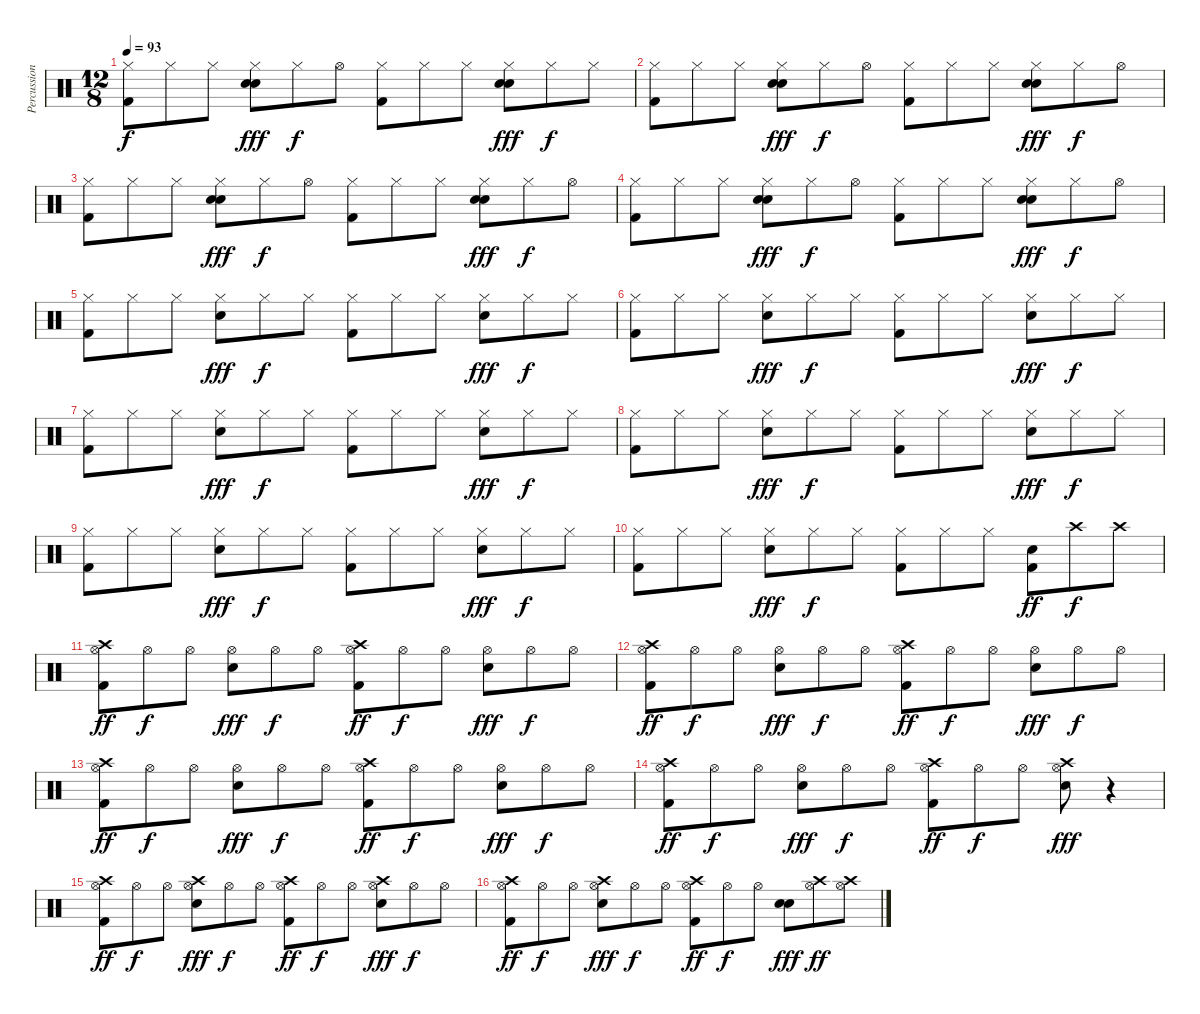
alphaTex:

\track ("Percussion" "Percussion") {instrument percussion}
\staff {score}
\articulation defaults
\ts (12 8)
\tempo 93
\clef neutral
\ks c
("Hi-Hat (closed)" "Kick (hit) 2").8{dy f} "Hi-Hat (closed)".8 "Hi-Hat (closed)".8 ("Hand Clap (hit)" "Hi-Hat (closed)" "Snare (hit) 2").8{dy fff} "Hi-Hat (closed)".8{dy f} "Hi-Hat (open)".8 ("Hi-Hat (closed)" "Kick (hit) 2").8 "Hi-Hat (closed)".8 "Hi-Hat (closed)".8 ("Hand Clap (hit)" "Hi-Hat (closed)" "Snare (hit) 2").8{dy fff} "Hi-Hat (closed)".8{dy f} "Hi-Hat (closed)".8 |
("Hi-Hat (closed)" "Kick (hit) 2").8 "Hi-Hat (closed)".8 "Hi-Hat (closed)".8 ("Hand Clap (hit)" "Hi-Hat (closed)" "Snare (hit) 2").8{dy fff} "Hi-Hat (closed)".8{dy f} "Hi-Hat (open)".8 ("Hi-Hat (closed)" "Kick (hit) 2").8 "Hi-Hat (closed)".8 "Hi-Hat (closed)".8 ("Hand Clap (hit)" "Hi-Hat (closed)" "Snare (hit) 2").8{dy fff} "Hi-Hat (closed)".8{dy f} "Hi-Hat (open)".8 |
("Hi-Hat (closed)" "Kick (hit) 2").8 "Hi-Hat (closed)".8 "Hi-Hat (closed)".8 ("Hand Clap (hit)" "Hi-Hat (closed)" "Snare (hit) 2").8{dy fff} "Hi-Hat (closed)".8{dy f} "Hi-Hat (open)".8 ("Hi-Hat (closed)" "Kick (hit) 2").8 "Hi-Hat (closed)".8 "Hi-Hat (closed)".8 ("Hand Clap (hit)" "Hi-Hat (closed)" "Snare (hit) 2").8{dy fff} "Hi-Hat (closed)".8{dy f} "Hi-Hat (open)".8 |
("Hi-Hat (closed)" "Kick (hit) 2").8 "Hi-Hat (closed)".8 "Hi-Hat (closed)".8 ("Hand Clap (hit)" "Hi-Hat (closed)" "Snare (hit) 2").8{dy fff} "Hi-Hat (closed)".8{dy f} "Hi-Hat (open)".8 ("Hi-Hat (closed)" "Kick (hit) 2").8 "Hi-Hat (closed)".8 "Hi-Hat (closed)".8 ("Hand Clap (hit)" "Hi-Hat (closed)" "Snare (hit) 2").8{dy fff} "Hi-Hat (closed)".8{dy f} "Hi-Hat (open)".8 |
("Hi-Hat (closed)" "Kick (hit) 2").8 "Hi-Hat (closed)".8 "Hi-Hat (closed)".8 ("Hi-Hat (closed)" "Snare (hit) 2").8{dy fff} "Hi-Hat (closed)".8{dy f} "Hi-Hat (closed)".8 ("Hi-Hat (closed)" "Kick (hit) 2").8 "Hi-Hat (closed)".8 "Hi-Hat (closed)".8 ("Hi-Hat (closed)" "Snare (hit) 2").8{dy fff} "Hi-Hat (closed)".8{dy f} "Hi-Hat (closed)".8 |
("Hi-Hat (closed)" "Kick (hit) 2").8 "Hi-Hat (closed)".8 "Hi-Hat (closed)".8 ("Hi-Hat (closed)" "Snare (hit) 2").8{dy fff} "Hi-Hat (closed)".8{dy f} "Hi-Hat (closed)".8 ("Hi-Hat (closed)" "Kick (hit) 2").8 "Hi-Hat (closed)".8 "Hi-Hat (closed)".8 ("Hi-Hat (closed)" "Snare (hit) 2").8{dy fff} "Hi-Hat (closed)".8{dy f} "Hi-Hat (closed)".8 |
("Hi-Hat (closed)" "Kick (hit) 2").8 "Hi-Hat (closed)".8 "Hi-Hat (closed)".8 ("Hi-Hat (closed)" "Snare (hit) 2").8{dy fff} "Hi-Hat (closed)".8{dy f} "Hi-Hat (closed)".8 ("Hi-Hat (closed)" "Kick (hit) 2").8 "Hi-Hat (closed)".8 "Hi-Hat (closed)".8 ("Hi-Hat (closed)" "Snare (hit) 2").8{dy fff} "Hi-Hat (closed)".8{dy f} "Hi-Hat (closed)".8 |
("Hi-Hat (closed)" "Kick (hit) 2").8 "Hi-Hat (closed)".8 "Hi-Hat (closed)".8 ("Hi-Hat (closed)" "Snare (hit) 2").8{dy fff} "Hi-Hat (closed)".8{dy f} "Hi-Hat (closed)".8 ("Hi-Hat (closed)" "Kick (hit) 2").8 "Hi-Hat (closed)".8 "Hi-Hat (closed)".8 ("Hi-Hat (closed)" "Snare (hit) 2").8{dy fff} "Hi-Hat (closed)".8{dy f} "Hi-Hat (closed)".8 |
("Hi-Hat (closed)" "Kick (hit) 2").8 "Hi-Hat (closed)".8 "Hi-Hat (closed)".8 ("Hi-Hat (closed)" "Snare (hit) 2").8{dy fff} "Hi-Hat (closed)".8{dy f} "Hi-Hat (closed)".8 ("Hi-Hat (closed)" "Kick (hit) 2").8 "Hi-Hat (closed)".8 "Hi-Hat (closed)".8 ("Hi-Hat (closed)" "Snare (hit) 2").8{dy fff} "Hi-Hat (closed)".8{dy f} "Hi-Hat (closed)".8 |
("Hi-Hat (closed)" "Kick (hit) 2").8 "Hi-Hat (closed)".8 "Hi-Hat (closed)".8 ("Hi-Hat (closed)" "Snare (hit) 2").8{dy fff} "Hi-Hat (closed)".8{dy f} "Hi-Hat (closed)".8 ("Hi-Hat (closed)" "Kick (hit) 2").8 "Hi-Hat (closed)".8 "Hi-Hat (closed)".8 ("Hand Clap (hit)" "Kick (hit) 2").8{dy ff} "Crash high (hit)".8{dy f} "Crash high (hit)".8 |
("Crash high (hit)" "Hi-Hat (open)" "Kick (hit) 2").8{dy ff} "Hi-Hat (open)".8{dy f} "Hi-Hat (open)".8 ("Hi-Hat (open)" "Snare (hit) 2").8{dy fff} "Hi-Hat (open)".8{dy f} "Hi-Hat (open)".8 ("Crash high (hit)" "Hi-Hat (open)" "Kick (hit) 2").8{dy ff} "Hi-Hat (open)".8{dy f} "Hi-Hat (open)".8 ("Hi-Hat (open)" "Snare (hit) 2").8{dy fff} "Hi-Hat (open)".8{dy f} "Hi-Hat (open)".8 |
("Crash high (hit)" "Hi-Hat (open)" "Kick (hit) 2").8{dy ff} "Hi-Hat (open)".8{dy f} "Hi-Hat (open)".8 ("Hi-Hat (open)" "Snare (hit) 2").8{dy fff} "Hi-Hat (open)".8{dy f} "Hi-Hat (open)".8 ("Crash high (hit)" "Hi-Hat (open)" "Kick (hit) 2").8{dy ff} "Hi-Hat (open)".8{dy f} "Hi-Hat (open)".8 ("Hi-Hat (open)" "Snare (hit) 2").8{dy fff} "Hi-Hat (open)".8{dy f} "Hi-Hat (open)".8 |
("Crash high (hit)" "Hi-Hat (open)" "Kick (hit) 2").8{dy ff} "Hi-Hat (open)".8{dy f} "Hi-Hat (open)".8 ("Hi-Hat (open)" "Snare (hit) 2").8{dy fff} "Hi-Hat (open)".8{dy f} "Hi-Hat (open)".8 ("Crash high (hit)" "Hi-Hat (open)" "Kick (hit) 2").8{dy ff} "Hi-Hat (open)".8{dy f} "Hi-Hat (open)".8 ("Hi-Hat (open)" "Snare (hit) 2").8{dy fff} "Hi-Hat (open)".8{dy f} "Hi-Hat (open)".8 |
("Crash high (hit)" "Hi-Hat (open)" "Kick (hit) 2").8{dy ff} "Hi-Hat (open)".8{dy f} "Hi-Hat (open)".8 ("Hi-Hat (open)" "Snare (hit) 2").8{dy fff} "Hi-Hat (open)".8{dy f} "Hi-Hat (open)".8 ("Crash high (hit)" "Hi-Hat (open)" "Kick (hit) 2").8{dy ff} "Hi-Hat (open)".8{dy f} "Hi-Hat (open)".8 ("Crash high (hit)" "Hi-Hat (open)" "Snare (hit) 2").8{dy fff} r.4 |
("Crash high (hit)" "Hi-Hat (open)" "Kick (hit) 2").8{dy ff} "Hi-Hat (open)".8{dy f} "Hi-Hat (open)".8 ("Crash high (hit)" "Hi-Hat (open)" "Snare (hit) 2").8{dy fff} "Hi-Hat (open)".8{dy f} "Hi-Hat (open)".8 ("Crash high (hit)" "Hi-Hat (open)" "Kick (hit) 2").8{dy ff} "Hi-Hat (open)".8{dy f} "Hi-Hat (open)".8 ("Crash high (hit)" "Hi-Hat (open)" "Snare (hit) 2").8{dy fff} "Hi-Hat (open)".8{dy f} "Hi-Hat (open)".8 |
("Crash high (hit)" "Hi-Hat (open)" "Kick (hit) 2").8{dy ff} "Hi-Hat (open)".8{dy f} "Hi-Hat (open)".8 ("Crash high (hit)" "Hi-Hat (open)" "Snare (hit) 2").8{dy fff} "Hi-Hat (open)".8{dy f} "Hi-Hat (open)".8 ("Crash high (hit)" "Hi-Hat (open)" "Kick (hit) 2").8{dy ff} "Hi-Hat (open)".8{dy f} "Hi-Hat (open)".8 ("Hand Clap (hit)" "Snare (hit) 2").8{dy fff} ("Crash high (hit)" "Hi-Hat (open)").8{dy ff} ("Crash high (hit)" "Hi-Hat (open)").8
